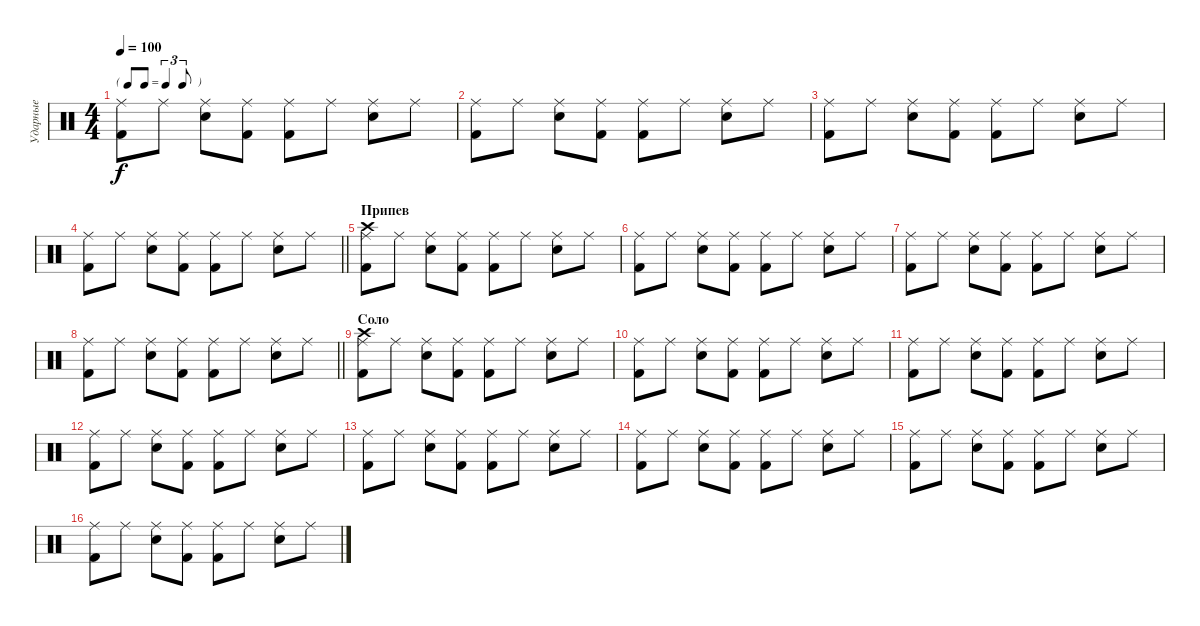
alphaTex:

\track ("Ударные" "Ударные") {instrument percussion}
\staff {score}
\articulation defaults
\ts (4 4)
\tf triplet8th
\tempo 100
\clef neutral
\ks c
("Ride (middle)" "Kick (hit) 2").8{dy f} "Ride (middle)".8 ("Ride (middle)" "Electric Snare (hit)").8 ("Ride (middle)" "Kick (hit) 2").8 ("Ride (middle)" "Kick (hit) 2").8 "Ride (middle)".8 ("Ride (middle)" "Electric Snare (hit)").8 "Ride (middle)".8 |
("Ride (middle)" "Kick (hit) 2").8 "Ride (middle)".8 ("Ride (middle)" "Electric Snare (hit)").8 ("Ride (middle)" "Kick (hit) 2").8 ("Ride (middle)" "Kick (hit) 2").8 "Ride (middle)".8 ("Ride (middle)" "Electric Snare (hit)").8 "Ride (middle)".8 |
("Ride (middle)" "Kick (hit) 2").8 "Ride (middle)".8 ("Ride (middle)" "Electric Snare (hit)").8 ("Ride (middle)" "Kick (hit) 2").8 ("Ride (middle)" "Kick (hit) 2").8 "Ride (middle)".8 ("Ride (middle)" "Electric Snare (hit)").8 "Ride (middle)".8 |
\barLineRight lightlight
("Ride (middle)" "Kick (hit) 2").8 "Ride (middle)".8 ("Ride (middle)" "Electric Snare (hit)").8 ("Ride (middle)" "Kick (hit) 2").8 ("Ride (middle)" "Kick (hit) 2").8 "Ride (middle)".8 ("Ride (middle)" "Electric Snare (hit)").8 "Ride (middle)".8 |
\section ("" "Припев")
("Ride (middle)" "Kick (hit) 2" "Crash high (hit)").8 "Ride (middle)".8 ("Ride (middle)" "Electric Snare (hit)").8 ("Ride (middle)" "Kick (hit) 2").8 ("Ride (middle)" "Kick (hit) 2").8 "Ride (middle)".8 ("Ride (middle)" "Electric Snare (hit)").8 "Ride (middle)".8 |
("Ride (middle)" "Kick (hit) 2").8 "Ride (middle)".8 ("Ride (middle)" "Electric Snare (hit)").8 ("Ride (middle)" "Kick (hit) 2").8 ("Ride (middle)" "Kick (hit) 2").8 "Ride (middle)".8 ("Ride (middle)" "Electric Snare (hit)").8 "Ride (middle)".8 |
("Ride (middle)" "Kick (hit) 2").8 "Ride (middle)".8 ("Ride (middle)" "Electric Snare (hit)").8 ("Ride (middle)" "Kick (hit) 2").8 ("Ride (middle)" "Kick (hit) 2").8 "Ride (middle)".8 ("Ride (middle)" "Electric Snare (hit)").8 "Ride (middle)".8 |
\barLineRight lightlight
("Ride (middle)" "Kick (hit) 2").8 "Ride (middle)".8 ("Ride (middle)" "Electric Snare (hit)").8 ("Ride (middle)" "Kick (hit) 2").8 ("Ride (middle)" "Kick (hit) 2").8 "Ride (middle)".8 ("Ride (middle)" "Electric Snare (hit)").8 "Ride (middle)".8 |
\section ("" "Соло")
("Ride (middle)" "Kick (hit) 2" "Crash high (hit)").8 "Ride (middle)".8 ("Ride (middle)" "Electric Snare (hit)").8 ("Ride (middle)" "Kick (hit) 2").8 ("Ride (middle)" "Kick (hit) 2").8 "Ride (middle)".8 ("Ride (middle)" "Electric Snare (hit)").8 "Ride (middle)".8 |
("Ride (middle)" "Kick (hit) 2").8 "Ride (middle)".8 ("Ride (middle)" "Electric Snare (hit)").8 ("Ride (middle)" "Kick (hit) 2").8 ("Ride (middle)" "Kick (hit) 2").8 "Ride (middle)".8 ("Ride (middle)" "Electric Snare (hit)").8 "Ride (middle)".8 |
("Ride (middle)" "Kick (hit) 2").8 "Ride (middle)".8 ("Ride (middle)" "Electric Snare (hit)").8 ("Ride (middle)" "Kick (hit) 2").8 ("Ride (middle)" "Kick (hit) 2").8 "Ride (middle)".8 ("Ride (middle)" "Electric Snare (hit)").8 "Ride (middle)".8 |
("Ride (middle)" "Kick (hit) 2").8 "Ride (middle)".8 ("Ride (middle)" "Electric Snare (hit)").8 ("Ride (middle)" "Kick (hit) 2").8 ("Ride (middle)" "Kick (hit) 2").8 "Ride (middle)".8 ("Ride (middle)" "Electric Snare (hit)").8 "Ride (middle)".8 |
("Ride (middle)" "Kick (hit) 2").8 "Ride (middle)".8 ("Ride (middle)" "Electric Snare (hit)").8 ("Ride (middle)" "Kick (hit) 2").8 ("Ride (middle)" "Kick (hit) 2").8 "Ride (middle)".8 ("Ride (middle)" "Electric Snare (hit)").8 "Ride (middle)".8 |
("Ride (middle)" "Kick (hit) 2").8 "Ride (middle)".8 ("Ride (middle)" "Electric Snare (hit)").8 ("Ride (middle)" "Kick (hit) 2").8 ("Ride (middle)" "Kick (hit) 2").8 "Ride (middle)".8 ("Ride (middle)" "Electric Snare (hit)").8 "Ride (middle)".8 |
("Ride (middle)" "Kick (hit) 2").8 "Ride (middle)".8 ("Ride (middle)" "Electric Snare (hit)").8 ("Ride (middle)" "Kick (hit) 2").8 ("Ride (middle)" "Kick (hit) 2").8 "Ride (middle)".8 ("Ride (middle)" "Electric Snare (hit)").8 "Ride (middle)".8 |
("Ride (middle)" "Kick (hit) 2").8 "Ride (middle)".8 ("Ride (middle)" "Electric Snare (hit)").8 ("Ride (middle)" "Kick (hit) 2").8 ("Ride (middle)" "Kick (hit) 2").8 "Ride (middle)".8 ("Ride (middle)" "Electric Snare (hit)").8 "Ride (middle)".8
